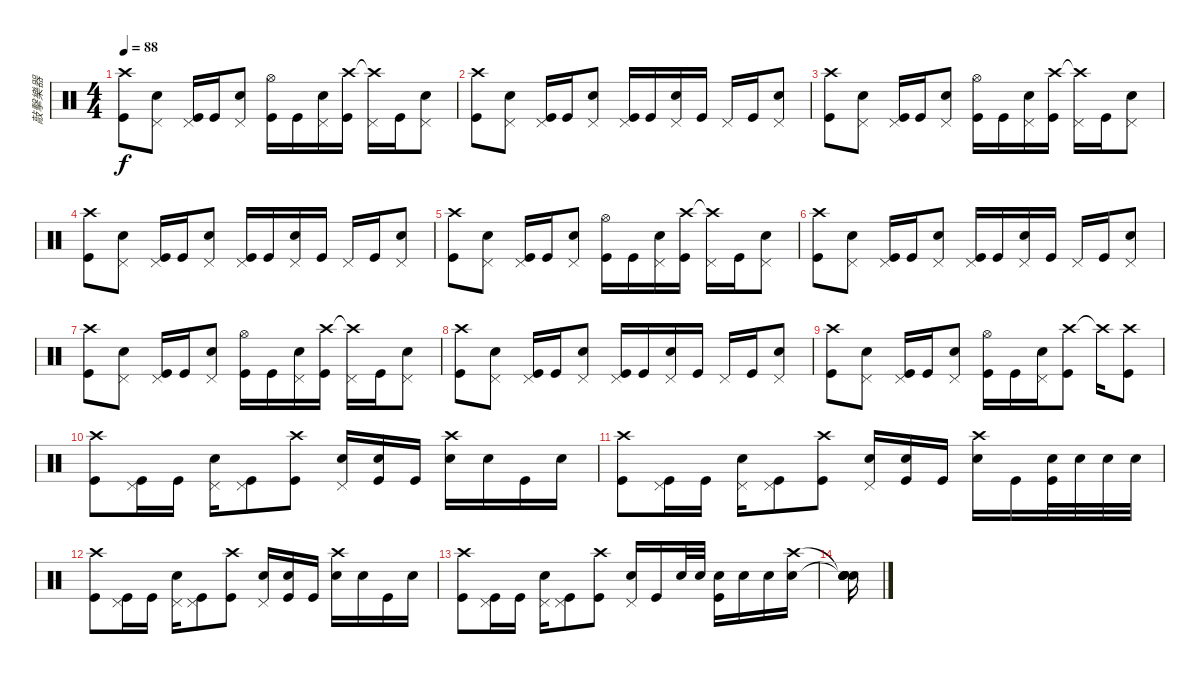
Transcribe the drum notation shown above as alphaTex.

\track ("敲擊樂器" "敲擊樂器") {instrument percussion}
\staff {score}
\articulation defaults
\ts (4 4)
\tempo 88
\clef neutral
\ks c
("Crash high (hit)" "Kick (hit)").8{dy f} ("Pedal Hi-Hat (hit)" "Snare (hit) 2").8 ("Pedal Hi-Hat (hit)" "Kick (hit)").16 "Kick (hit)".16 ("Pedal Hi-Hat (hit)" "Snare (hit) 2").8 ("Hi-Hat (open)" "Kick (hit)").16 "Kick (hit)".16 ("Pedal Hi-Hat (hit)" "Snare (hit) 2").16 ("Crash high (hit)" "Kick (hit)").16 ("Crash high (hit)"{t} "Pedal Hi-Hat (hit)").16 "Kick (hit)".16 ("Pedal Hi-Hat (hit)" "Snare (hit) 2").8 |
("Crash high (hit)" "Kick (hit)").8 ("Pedal Hi-Hat (hit)" "Snare (hit) 2").8 ("Pedal Hi-Hat (hit)" "Kick (hit)").16 "Kick (hit)".16 ("Pedal Hi-Hat (hit)" "Snare (hit) 2").8 ("Pedal Hi-Hat (hit)" "Kick (hit)").16 "Kick (hit)".16 ("Pedal Hi-Hat (hit)" "Snare (hit) 2").16 "Kick (hit)".16 "Pedal Hi-Hat (hit)".16 "Kick (hit)".16 ("Pedal Hi-Hat (hit)" "Snare (hit) 2").8 |
("Crash high (hit)" "Kick (hit)").8 ("Pedal Hi-Hat (hit)" "Snare (hit) 2").8 ("Pedal Hi-Hat (hit)" "Kick (hit)").16 "Kick (hit)".16 ("Pedal Hi-Hat (hit)" "Snare (hit) 2").8 ("Hi-Hat (open)" "Kick (hit)").16 "Kick (hit)".16 ("Pedal Hi-Hat (hit)" "Snare (hit) 2").16 ("Crash high (hit)" "Kick (hit)").16 ("Crash high (hit)"{t} "Pedal Hi-Hat (hit)").16 "Kick (hit)".16 ("Pedal Hi-Hat (hit)" "Snare (hit) 2").8 |
("Crash high (hit)" "Kick (hit)").8 ("Pedal Hi-Hat (hit)" "Snare (hit) 2").8 ("Pedal Hi-Hat (hit)" "Kick (hit)").16 "Kick (hit)".16 ("Pedal Hi-Hat (hit)" "Snare (hit) 2").8 ("Pedal Hi-Hat (hit)" "Kick (hit)").16 "Kick (hit)".16 ("Pedal Hi-Hat (hit)" "Snare (hit) 2").16 "Kick (hit)".16 "Pedal Hi-Hat (hit)".16 "Kick (hit)".16 ("Pedal Hi-Hat (hit)" "Snare (hit) 2").8 |
("Crash high (hit)" "Kick (hit)").8 ("Pedal Hi-Hat (hit)" "Snare (hit) 2").8 ("Pedal Hi-Hat (hit)" "Kick (hit)").16 "Kick (hit)".16 ("Pedal Hi-Hat (hit)" "Snare (hit) 2").8 ("Hi-Hat (open)" "Kick (hit)").16 "Kick (hit)".16 ("Pedal Hi-Hat (hit)" "Snare (hit) 2").16 ("Crash high (hit)" "Kick (hit)").16 ("Crash high (hit)"{t} "Pedal Hi-Hat (hit)").16 "Kick (hit)".16 ("Pedal Hi-Hat (hit)" "Snare (hit) 2").8 |
("Crash high (hit)" "Kick (hit)").8 ("Pedal Hi-Hat (hit)" "Snare (hit) 2").8 ("Pedal Hi-Hat (hit)" "Kick (hit)").16 "Kick (hit)".16 ("Pedal Hi-Hat (hit)" "Snare (hit) 2").8 ("Pedal Hi-Hat (hit)" "Kick (hit)").16 "Kick (hit)".16 ("Pedal Hi-Hat (hit)" "Snare (hit) 2").16 "Kick (hit)".16 "Pedal Hi-Hat (hit)".16 "Kick (hit)".16 ("Pedal Hi-Hat (hit)" "Snare (hit) 2").8 |
("Crash high (hit)" "Kick (hit)").8 ("Pedal Hi-Hat (hit)" "Snare (hit) 2").8 ("Pedal Hi-Hat (hit)" "Kick (hit)").16 "Kick (hit)".16 ("Pedal Hi-Hat (hit)" "Snare (hit) 2").8 ("Hi-Hat (open)" "Kick (hit)").16 "Kick (hit)".16 ("Pedal Hi-Hat (hit)" "Snare (hit) 2").16 ("Crash high (hit)" "Kick (hit)").16 ("Crash high (hit)"{t} "Pedal Hi-Hat (hit)").16 "Kick (hit)".16 ("Pedal Hi-Hat (hit)" "Snare (hit) 2").8 |
("Crash high (hit)" "Kick (hit)").8 ("Pedal Hi-Hat (hit)" "Snare (hit) 2").8 ("Pedal Hi-Hat (hit)" "Kick (hit)").16 "Kick (hit)".16 ("Pedal Hi-Hat (hit)" "Snare (hit) 2").8 ("Pedal Hi-Hat (hit)" "Kick (hit)").16 "Kick (hit)".16 ("Pedal Hi-Hat (hit)" "Snare (hit) 2").16 "Kick (hit)".16 "Pedal Hi-Hat (hit)".16 "Kick (hit)".16 ("Pedal Hi-Hat (hit)" "Snare (hit) 2").8 |
("Crash high (hit)" "Kick (hit)").8 ("Pedal Hi-Hat (hit)" "Snare (hit) 2").8 ("Pedal Hi-Hat (hit)" "Kick (hit)").16 "Kick (hit)".16 ("Pedal Hi-Hat (hit)" "Snare (hit) 2").8 ("Hi-Hat (open)" "Kick (hit)").16 "Kick (hit)".16 ("Pedal Hi-Hat (hit)" "Snare (hit) 2").16 ("Crash high (hit)" "Kick (hit)").8 "Crash high (hit)"{t}.16 ("Crash high (hit)" "Kick (hit)").8 |
("Crash high (hit)" "Kick (hit)").8 ("Pedal Hi-Hat (hit)" "Kick (hit)").16 "Kick (hit)".16 ("Pedal Hi-Hat (hit)" "Snare (hit) 2").16 ("Pedal Hi-Hat (hit)" "Kick (hit)").8 ("Crash high (hit)" "Kick (hit)").8 ("Pedal Hi-Hat (hit)" "Snare (hit) 2").16 ("Snare (hit) 2" "Kick (hit)").16 "Kick (hit)".16 ("Crash high (hit)" "Snare (hit) 2").16 "Snare (hit) 2".16 "Kick (hit)".16 "Snare (hit) 2".16 |
("Crash high (hit)" "Kick (hit)").8 ("Pedal Hi-Hat (hit)" "Kick (hit)").16 "Kick (hit)".16 ("Pedal Hi-Hat (hit)" "Snare (hit) 2").16 ("Pedal Hi-Hat (hit)" "Kick (hit)").8 ("Crash high (hit)" "Kick (hit)").8 ("Pedal Hi-Hat (hit)" "Snare (hit) 2").16 ("Snare (hit) 2" "Kick (hit)").16 "Kick (hit)".16 ("Crash high (hit)" "Snare (hit) 2").16 "Kick (hit)".16 ("Snare (hit) 2" "Kick (hit)").32 "Snare (hit) 2".32 "Snare (hit) 2".32 "Snare (hit) 2".32 |
("Crash high (hit)" "Kick (hit)").8 ("Pedal Hi-Hat (hit)" "Kick (hit)").16 "Kick (hit)".16 ("Pedal Hi-Hat (hit)" "Snare (hit) 2").16 ("Pedal Hi-Hat (hit)" "Kick (hit)").8 ("Crash high (hit)" "Kick (hit)").8 ("Pedal Hi-Hat (hit)" "Snare (hit) 2").16 ("Snare (hit) 2" "Kick (hit)").16 "Kick (hit)".16 ("Crash high (hit)" "Snare (hit) 2").16 "Snare (hit) 2".16 "Kick (hit)".16 "Snare (hit) 2".16 |
("Crash high (hit)" "Kick (hit)").8 ("Pedal Hi-Hat (hit)" "Kick (hit)").16 "Kick (hit)".16 ("Pedal Hi-Hat (hit)" "Snare (hit) 2").16 ("Pedal Hi-Hat (hit)" "Kick (hit)").8 ("Crash high (hit)" "Kick (hit)").8 ("Pedal Hi-Hat (hit)" "Snare (hit) 2").16 "Kick (hit)".16 "Snare (hit) 2".32 "Snare (hit) 2".32 ("Snare (hit) 2" "Kick (hit)").16 "Snare (hit) 2".16 "Snare (hit) 2".16 ("Crash high (hit)" "Snare (hit) 2").16 |
("Snare (hit)"{t} "Snare (hit)"{t} "Snare (hit)" "Snare (hit)" "Snare (hit)").16
